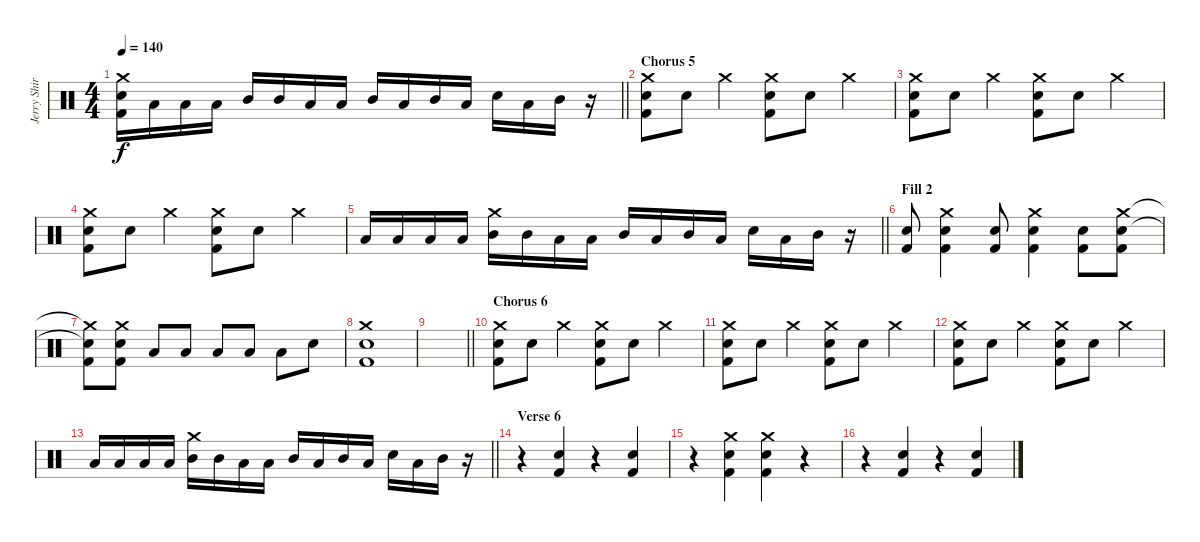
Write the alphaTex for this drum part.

\track ("Jerry Shirley (Drums)" "Jerry Shir") {instrument percussion bank 255}
\staff {score}
\articulation defaults
\ts (4 4)
\tempo 140
\clef neutral
\barLineRight lightlight
\ks c
("Kick (hit) 2" "Electric Snare (hit)" "Crash medium (hit)").16{dy f volume 16} "Low Tom (hit)".16{volume 13} "Low Tom (hit)".16 "Low Tom (hit)".16 "Mid Tom (hit)".16 "Mid Tom (hit)".16 "Low Tom (hit)".16 "Low Tom (hit)".16 "Mid Tom (hit)".16 "Low Tom (hit)".16 "Mid Tom (hit)".16 "Low Tom (hit)".16 "Electric Snare (hit)".16 "Low Tom (hit)".16 "Mid Tom (hit)".16 r.16 |
\section ("" "Chorus 5")
("Electric Snare (hit)" "Kick (hit) 2" "Crash medium (hit)").8 "Electric Snare (hit)".8 "Crash medium (hit)".4 ("Electric Snare (hit)" "Kick (hit) 2" "Crash medium (hit)").8 "Electric Snare (hit)".8 "Crash medium (hit)".4 |
("Electric Snare (hit)" "Kick (hit) 2" "Crash medium (hit)").8 "Electric Snare (hit)".8 "Crash medium (hit)".4 ("Electric Snare (hit)" "Kick (hit) 2" "Crash medium (hit)").8 "Electric Snare (hit)".8 "Crash medium (hit)".4 |
("Electric Snare (hit)" "Kick (hit) 2" "Crash medium (hit)").8 "Electric Snare (hit)".8 "Crash medium (hit)".4 ("Electric Snare (hit)" "Kick (hit) 2" "Crash medium (hit)").8 "Electric Snare (hit)".8 "Crash medium (hit)".4 |
\barLineRight lightlight "Low Tom (hit)".16 "Low Tom (hit)".16 "Low Tom (hit)".16 "Low Tom (hit)".16
("Mid Tom (hit)" "Crash medium (hit)").16 "Mid Tom (hit)".16 "Low Tom (hit)".16 "Low Tom (hit)".16 "Mid Tom (hit)".16 "Low Tom (hit)".16 "Mid Tom (hit)".16 "Low Tom (hit)".16 "Electric Snare (hit)".16 "Low Tom (hit)".16 "Mid Tom (hit)".16 r.16 |
\section ("" "Fill 2")
("Electric Snare (hit)" "Kick (hit) 2").8 ("Crash medium (hit)" "Electric Snare (hit)" "Kick (hit) 2").4 ("Electric Snare (hit)" "Kick (hit) 2").8 ("Crash medium (hit)" "Electric Snare (hit)" "Kick (hit) 2").4 ("Electric Snare (hit)" "Kick (hit) 2").8 ("Crash medium (hit)" "Electric Snare (hit)" "Kick (hit) 2").8 |
("Crash medium (hit)"{t} "Electric Snare (hit)"{t} "Kick (hit) 2").8 ("Crash medium (hit)" "Electric Snare (hit)" "Kick (hit) 2").8 "Low Tom (hit)".8 "Low Tom (hit)".8 "Low Tom (hit)".8 "Low Tom (hit)".8 "Low Tom (hit)".8 "Electric Snare (hit)".8 |
("Crash medium (hit)" "Electric Snare (hit)" "Kick (hit) 2").1 |
\barLineRight lightlight
|
\section ("" "Chorus 6")
("Electric Snare (hit)" "Kick (hit) 2" "Crash medium (hit)").8 "Electric Snare (hit)".8 "Crash medium (hit)".4 ("Electric Snare (hit)" "Kick (hit) 2" "Crash medium (hit)").8 "Electric Snare (hit)".8 "Crash medium (hit)".4 |
("Electric Snare (hit)" "Kick (hit) 2" "Crash medium (hit)").8 "Electric Snare (hit)".8 "Crash medium (hit)".4 ("Electric Snare (hit)" "Kick (hit) 2" "Crash medium (hit)").8 "Electric Snare (hit)".8 "Crash medium (hit)".4 |
("Electric Snare (hit)" "Kick (hit) 2" "Crash medium (hit)").8 "Electric Snare (hit)".8 "Crash medium (hit)".4 ("Electric Snare (hit)" "Kick (hit) 2" "Crash medium (hit)").8 "Electric Snare (hit)".8 "Crash medium (hit)".4 |
\barLineRight lightlight "Low Tom (hit)".16 "Low Tom (hit)".16 "Low Tom (hit)".16 "Low Tom (hit)".16
("Mid Tom (hit)" "Crash medium (hit)").16 "Mid Tom (hit)".16 "Low Tom (hit)".16 "Low Tom (hit)".16 "Mid Tom (hit)".16 "Low Tom (hit)".16 "Mid Tom (hit)".16 "Low Tom (hit)".16 "Electric Snare (hit)".16 "Low Tom (hit)".16 "Mid Tom (hit)".16 r.16 |
\section ("" "Verse 6")
r.4 ("Electric Snare (hit)" "Kick (hit) 2").4{volume 7} r.4 ("Electric Snare (hit)" "Kick (hit) 2").4 |
r.4 ("Kick (hit) 2" "Electric Snare (hit)" "Crash medium (hit)").4{volume 16} ("Kick (hit) 2" "Electric Snare (hit)" "Crash medium (hit)").4 r.4 |
r.4 ("Electric Snare (hit)" "Kick (hit) 2").4{volume 7} r.4 ("Electric Snare (hit)" "Kick (hit) 2").4
